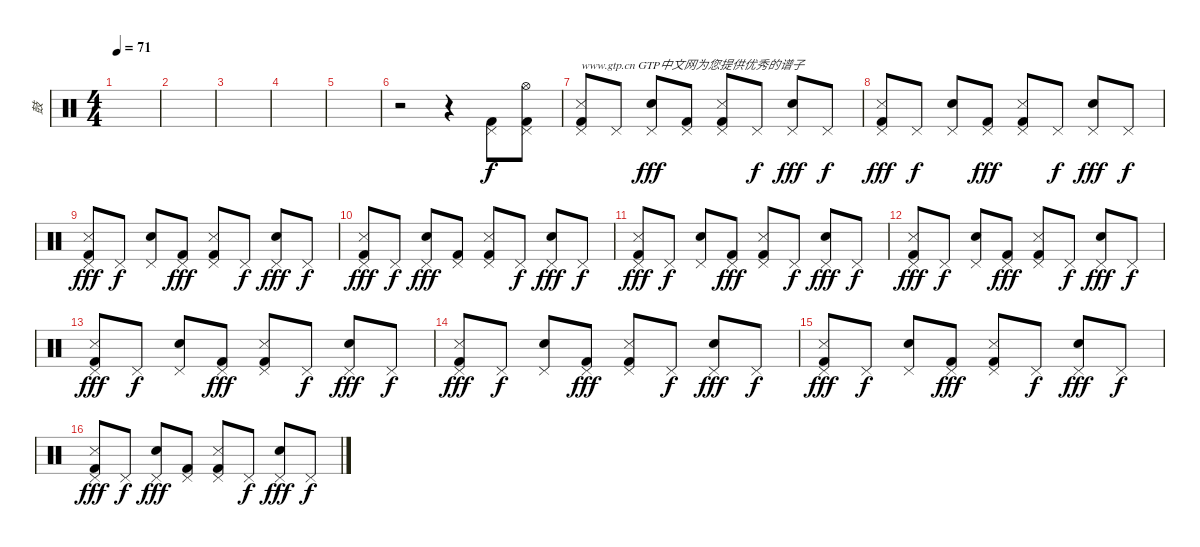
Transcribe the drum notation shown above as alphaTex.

\track ("鼓" "鼓") {instrument percussion}
\staff {score}
\articulation defaults
\ts (4 4)
\tempo 71
\clef neutral
\ks c
|
|
|
|
|
r.2 r.4 ("Pedal Hi-Hat (hit)" "Kick (hit) 2").8 ("Hi-Hat (open)" "Pedal Hi-Hat (hit)" "Kick (hit) 2").8 |
("Snare (side stick) 3" "Pedal Hi-Hat (hit)" "Kick (hit) 2").8{txt "www.gtp.cn GTP中文网为您提供优秀的谱子"} "Pedal Hi-Hat (hit)".8{dy f} ("Hand Clap (hit)" "Pedal Hi-Hat (hit)").8{dy fff} ("Pedal Hi-Hat (hit)" "Kick (hit) 2").8 ("Snare (side stick) 3" "Pedal Hi-Hat (hit)" "Kick (hit) 2").8 "Pedal Hi-Hat (hit)".8{dy f} ("Hand Clap (hit)" "Pedal Hi-Hat (hit)").8{dy fff} "Pedal Hi-Hat (hit)".8{dy f} |
("Snare (side stick) 3" "Pedal Hi-Hat (hit)" "Kick (hit) 2").8{dy fff} "Pedal Hi-Hat (hit)".8{dy f} ("Hand Clap (hit)" "Pedal Hi-Hat (hit)").8 ("Pedal Hi-Hat (hit)" "Kick (hit) 2").8{dy fff} ("Snare (side stick) 3" "Pedal Hi-Hat (hit)" "Kick (hit) 2").8 "Pedal Hi-Hat (hit)".8{dy f} ("Hand Clap (hit)" "Pedal Hi-Hat (hit)").8{dy fff} "Pedal Hi-Hat (hit)".8{dy f} |
("Snare (side stick) 3" "Pedal Hi-Hat (hit)" "Kick (hit) 2").8{dy fff} "Pedal Hi-Hat (hit)".8{dy f} ("Hand Clap (hit)" "Pedal Hi-Hat (hit)").8 ("Pedal Hi-Hat (hit)" "Kick (hit) 2").8{dy fff} ("Snare (side stick) 3" "Pedal Hi-Hat (hit)" "Kick (hit) 2").8 "Pedal Hi-Hat (hit)".8{dy f} ("Hand Clap (hit)" "Pedal Hi-Hat (hit)").8{dy fff} "Pedal Hi-Hat (hit)".8{dy f} |
("Snare (side stick) 3" "Pedal Hi-Hat (hit)" "Kick (hit) 2").8{dy fff} "Pedal Hi-Hat (hit)".8{dy f} ("Hand Clap (hit)" "Pedal Hi-Hat (hit)").8{dy fff} ("Pedal Hi-Hat (hit)" "Kick (hit) 2").8 ("Snare (side stick) 3" "Pedal Hi-Hat (hit)" "Kick (hit) 2").8 "Pedal Hi-Hat (hit)".8{dy f} ("Hand Clap (hit)" "Pedal Hi-Hat (hit)").8{dy fff} "Pedal Hi-Hat (hit)".8{dy f} |
("Snare (side stick) 3" "Pedal Hi-Hat (hit)" "Kick (hit) 2").8{dy fff} "Pedal Hi-Hat (hit)".8{dy f} ("Hand Clap (hit)" "Pedal Hi-Hat (hit)").8 ("Pedal Hi-Hat (hit)" "Kick (hit) 2").8{dy fff} ("Snare (side stick) 3" "Pedal Hi-Hat (hit)" "Kick (hit) 2").8 "Pedal Hi-Hat (hit)".8{dy f} ("Hand Clap (hit)" "Pedal Hi-Hat (hit)").8{dy fff} "Pedal Hi-Hat (hit)".8{dy f} |
("Snare (side stick) 3" "Pedal Hi-Hat (hit)" "Kick (hit) 2").8{dy fff} "Pedal Hi-Hat (hit)".8{dy f} ("Hand Clap (hit)" "Pedal Hi-Hat (hit)").8 ("Pedal Hi-Hat (hit)" "Kick (hit) 2").8{dy fff} ("Snare (side stick) 3" "Pedal Hi-Hat (hit)" "Kick (hit) 2").8 "Pedal Hi-Hat (hit)".8{dy f} ("Hand Clap (hit)" "Pedal Hi-Hat (hit)").8{dy fff} "Pedal Hi-Hat (hit)".8{dy f} |
("Snare (side stick) 3" "Pedal Hi-Hat (hit)" "Kick (hit) 2").8{dy fff} "Pedal Hi-Hat (hit)".8{dy f} ("Hand Clap (hit)" "Pedal Hi-Hat (hit)").8 ("Pedal Hi-Hat (hit)" "Kick (hit) 2").8{dy fff} ("Snare (side stick) 3" "Pedal Hi-Hat (hit)" "Kick (hit) 2").8 "Pedal Hi-Hat (hit)".8{dy f} ("Hand Clap (hit)" "Pedal Hi-Hat (hit)").8{dy fff} "Pedal Hi-Hat (hit)".8{dy f} |
("Snare (side stick) 3" "Pedal Hi-Hat (hit)" "Kick (hit) 2").8{dy fff} "Pedal Hi-Hat (hit)".8{dy f} ("Hand Clap (hit)" "Pedal Hi-Hat (hit)").8 ("Pedal Hi-Hat (hit)" "Kick (hit) 2").8{dy fff} ("Snare (side stick) 3" "Pedal Hi-Hat (hit)" "Kick (hit) 2").8 "Pedal Hi-Hat (hit)".8{dy f} ("Hand Clap (hit)" "Pedal Hi-Hat (hit)").8{dy fff} "Pedal Hi-Hat (hit)".8{dy f} |
("Snare (side stick) 3" "Pedal Hi-Hat (hit)" "Kick (hit) 2").8{dy fff} "Pedal Hi-Hat (hit)".8{dy f} ("Hand Clap (hit)" "Pedal Hi-Hat (hit)").8 ("Pedal Hi-Hat (hit)" "Kick (hit) 2").8{dy fff} ("Snare (side stick) 3" "Pedal Hi-Hat (hit)" "Kick (hit) 2").8 "Pedal Hi-Hat (hit)".8{dy f} ("Hand Clap (hit)" "Pedal Hi-Hat (hit)").8{dy fff} "Pedal Hi-Hat (hit)".8{dy f} |
("Snare (side stick) 3" "Pedal Hi-Hat (hit)" "Kick (hit) 2").8{dy fff} "Pedal Hi-Hat (hit)".8{dy f} ("Hand Clap (hit)" "Pedal Hi-Hat (hit)").8{dy fff} ("Pedal Hi-Hat (hit)" "Kick (hit) 2").8 ("Snare (side stick) 3" "Pedal Hi-Hat (hit)" "Kick (hit) 2").8 "Pedal Hi-Hat (hit)".8{dy f} ("Hand Clap (hit)" "Pedal Hi-Hat (hit)").8{dy fff} "Pedal Hi-Hat (hit)".8{dy f}
